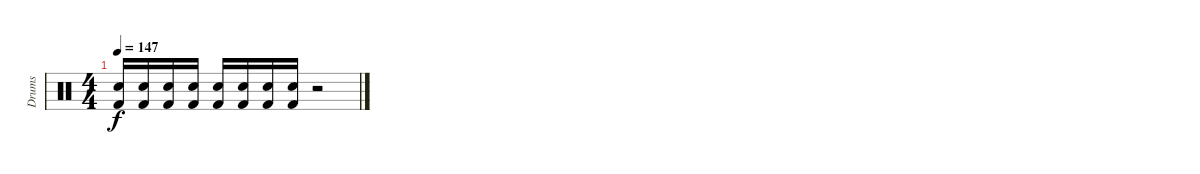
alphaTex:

\track ("Drums" "Drums") {instrument percussion}
\staff {score}
\articulation defaults
\ts (4 4)
\tempo 147
\clef neutral
\ks aminor
("Electric Snare (hit)" "Kick (hit) 2").16{dy f} ("Electric Snare (hit)" "Kick (hit) 2").16 ("Electric Snare (hit)" "Kick (hit) 2").16 ("Electric Snare (hit)" "Kick (hit) 2").16 ("Electric Snare (hit)" "Kick (hit) 2").16 ("Electric Snare (hit)" "Kick (hit) 2").16 ("Electric Snare (hit)" "Kick (hit) 2").16 ("Electric Snare (hit)" "Kick (hit) 2").16 r.2
